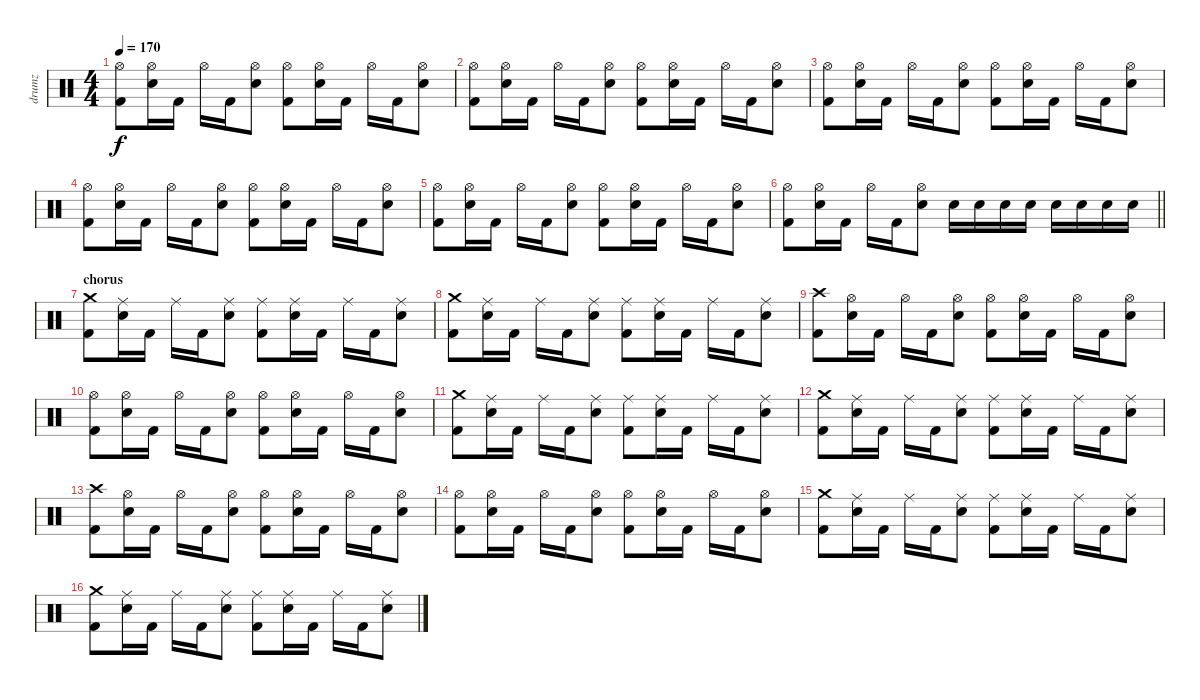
\track ("drumz" "drumz") {instrument percussion}
\staff {score}
\articulation defaults
\ts (4 4)
\tempo 170
\clef neutral
\ks c
("Hi-Hat (open)" "Kick (hit) 2").8{dy f} ("Hi-Hat (open)" "Electric Snare (hit)").16 "Kick (hit) 2".16 "Hi-Hat (open)".16 "Kick (hit) 2".16 ("Hi-Hat (open)" "Electric Snare (hit)").8 ("Hi-Hat (open)" "Kick (hit) 2").8 ("Hi-Hat (open)" "Electric Snare (hit)").16 "Kick (hit) 2".16 "Hi-Hat (open)".16 "Kick (hit) 2".16 ("Hi-Hat (open)" "Electric Snare (hit)").8 |
("Hi-Hat (open)" "Kick (hit) 2").8 ("Hi-Hat (open)" "Electric Snare (hit)").16 "Kick (hit) 2".16 "Hi-Hat (open)".16 "Kick (hit) 2".16 ("Hi-Hat (open)" "Electric Snare (hit)").8 ("Hi-Hat (open)" "Kick (hit) 2").8 ("Hi-Hat (open)" "Electric Snare (hit)").16 "Kick (hit) 2".16 "Hi-Hat (open)".16 "Kick (hit) 2".16 ("Hi-Hat (open)" "Electric Snare (hit)").8 |
("Hi-Hat (open)" "Kick (hit) 2").8 ("Hi-Hat (open)" "Electric Snare (hit)").16 "Kick (hit) 2".16 "Hi-Hat (open)".16 "Kick (hit) 2".16 ("Hi-Hat (open)" "Electric Snare (hit)").8 ("Hi-Hat (open)" "Kick (hit) 2").8 ("Hi-Hat (open)" "Electric Snare (hit)").16 "Kick (hit) 2".16 "Hi-Hat (open)".16 "Kick (hit) 2".16 ("Hi-Hat (open)" "Electric Snare (hit)").8 |
("Hi-Hat (open)" "Kick (hit) 2").8 ("Hi-Hat (open)" "Electric Snare (hit)").16 "Kick (hit) 2".16 "Hi-Hat (open)".16 "Kick (hit) 2".16 ("Hi-Hat (open)" "Electric Snare (hit)").8 ("Hi-Hat (open)" "Kick (hit) 2").8 ("Hi-Hat (open)" "Electric Snare (hit)").16 "Kick (hit) 2".16 "Hi-Hat (open)".16 "Kick (hit) 2".16 ("Hi-Hat (open)" "Electric Snare (hit)").8 |
("Hi-Hat (open)" "Kick (hit) 2").8 ("Hi-Hat (open)" "Electric Snare (hit)").16 "Kick (hit) 2".16 "Hi-Hat (open)".16 "Kick (hit) 2".16 ("Hi-Hat (open)" "Electric Snare (hit)").8 ("Hi-Hat (open)" "Kick (hit) 2").8 ("Hi-Hat (open)" "Electric Snare (hit)").16 "Kick (hit) 2".16 "Hi-Hat (open)".16 "Kick (hit) 2".16 ("Hi-Hat (open)" "Electric Snare (hit)").8 |
\barLineRight lightlight
("Hi-Hat (open)" "Kick (hit) 2").8 ("Hi-Hat (open)" "Electric Snare (hit)").16 "Kick (hit) 2".16 "Hi-Hat (open)".16 "Kick (hit) 2".16 ("Hi-Hat (open)" "Electric Snare (hit)").8 "Electric Snare (hit)".16 "Electric Snare (hit)".16 "Electric Snare (hit)".16 "Electric Snare (hit)".16 "Electric Snare (hit)".16 "Electric Snare (hit)".16 "Electric Snare (hit)".16 "Electric Snare (hit)".16 |
\section ("" "chorus")
("Crash medium (hit)" "Kick (hit) 2").8 ("Ride (middle)" "Electric Snare (hit)").16 "Kick (hit) 2".16 "Ride (middle)".16 "Kick (hit) 2".16 ("Ride (middle)" "Electric Snare (hit)").8 ("Ride (middle)" "Kick (hit) 2").8 ("Ride (middle)" "Electric Snare (hit)").16 "Kick (hit) 2".16 "Ride (middle)".16 "Kick (hit) 2".16 ("Ride (middle)" "Electric Snare (hit)").8 |
("Crash medium (hit)" "Kick (hit) 2").8 ("Ride (middle)" "Electric Snare (hit)").16 "Kick (hit) 2".16 "Ride (middle)".16 "Kick (hit) 2".16 ("Ride (middle)" "Electric Snare (hit)").8 ("Ride (middle)" "Kick (hit) 2").8 ("Ride (middle)" "Electric Snare (hit)").16 "Kick (hit) 2".16 "Ride (middle)".16 "Kick (hit) 2".16 ("Ride (middle)" "Electric Snare (hit)").8 |
("Crash high (hit)" "Kick (hit) 2").8 ("Hi-Hat (open)" "Electric Snare (hit)").16 "Kick (hit) 2".16 "Hi-Hat (open)".16 "Kick (hit) 2".16 ("Hi-Hat (open)" "Electric Snare (hit)").8 ("Hi-Hat (open)" "Kick (hit) 2").8 ("Hi-Hat (open)" "Electric Snare (hit)").16 "Kick (hit) 2".16 "Hi-Hat (open)".16 "Kick (hit) 2".16 ("Hi-Hat (open)" "Electric Snare (hit)").8 |
("Hi-Hat (open)" "Kick (hit) 2").8 ("Hi-Hat (open)" "Electric Snare (hit)").16 "Kick (hit) 2".16 "Hi-Hat (open)".16 "Kick (hit) 2".16 ("Hi-Hat (open)" "Electric Snare (hit)").8 ("Hi-Hat (open)" "Kick (hit) 2").8 ("Hi-Hat (open)" "Electric Snare (hit)").16 "Kick (hit) 2".16 "Hi-Hat (open)".16 "Kick (hit) 2".16 ("Hi-Hat (open)" "Electric Snare (hit)").8 |
("Crash medium (hit)" "Kick (hit) 2").8 ("Ride (middle)" "Electric Snare (hit)").16 "Kick (hit) 2".16 "Ride (middle)".16 "Kick (hit) 2".16 ("Ride (middle)" "Electric Snare (hit)").8 ("Ride (middle)" "Kick (hit) 2").8 ("Ride (middle)" "Electric Snare (hit)").16 "Kick (hit) 2".16 "Ride (middle)".16 "Kick (hit) 2".16 ("Ride (middle)" "Electric Snare (hit)").8 |
("Crash medium (hit)" "Kick (hit) 2").8 ("Ride (middle)" "Electric Snare (hit)").16 "Kick (hit) 2".16 "Ride (middle)".16 "Kick (hit) 2".16 ("Ride (middle)" "Electric Snare (hit)").8 ("Ride (middle)" "Kick (hit) 2").8 ("Ride (middle)" "Electric Snare (hit)").16 "Kick (hit) 2".16 "Ride (middle)".16 "Kick (hit) 2".16 ("Ride (middle)" "Electric Snare (hit)").8 |
("Crash high (hit)" "Kick (hit) 2").8 ("Hi-Hat (open)" "Electric Snare (hit)").16 "Kick (hit) 2".16 "Hi-Hat (open)".16 "Kick (hit) 2".16 ("Hi-Hat (open)" "Electric Snare (hit)").8 ("Hi-Hat (open)" "Kick (hit) 2").8 ("Hi-Hat (open)" "Electric Snare (hit)").16 "Kick (hit) 2".16 "Hi-Hat (open)".16 "Kick (hit) 2".16 ("Hi-Hat (open)" "Electric Snare (hit)").8 |
("Hi-Hat (open)" "Kick (hit) 2").8 ("Hi-Hat (open)" "Electric Snare (hit)").16 "Kick (hit) 2".16 "Hi-Hat (open)".16 "Kick (hit) 2".16 ("Hi-Hat (open)" "Electric Snare (hit)").8 ("Hi-Hat (open)" "Kick (hit) 2").8 ("Hi-Hat (open)" "Electric Snare (hit)").16 "Kick (hit) 2".16 "Hi-Hat (open)".16 "Kick (hit) 2".16 ("Hi-Hat (open)" "Electric Snare (hit)").8 |
("Crash medium (hit)" "Kick (hit) 2").8 ("Ride (middle)" "Electric Snare (hit)").16 "Kick (hit) 2".16 "Ride (middle)".16 "Kick (hit) 2".16 ("Ride (middle)" "Electric Snare (hit)").8 ("Ride (middle)" "Kick (hit) 2").8 ("Ride (middle)" "Electric Snare (hit)").16 "Kick (hit) 2".16 "Ride (middle)".16 "Kick (hit) 2".16 ("Ride (middle)" "Electric Snare (hit)").8 |
("Crash medium (hit)" "Kick (hit) 2").8 ("Ride (middle)" "Electric Snare (hit)").16 "Kick (hit) 2".16 "Ride (middle)".16 "Kick (hit) 2".16 ("Ride (middle)" "Electric Snare (hit)").8 ("Ride (middle)" "Kick (hit) 2").8 ("Ride (middle)" "Electric Snare (hit)").16 "Kick (hit) 2".16 "Ride (middle)".16 "Kick (hit) 2".16 ("Ride (middle)" "Electric Snare (hit)").8
